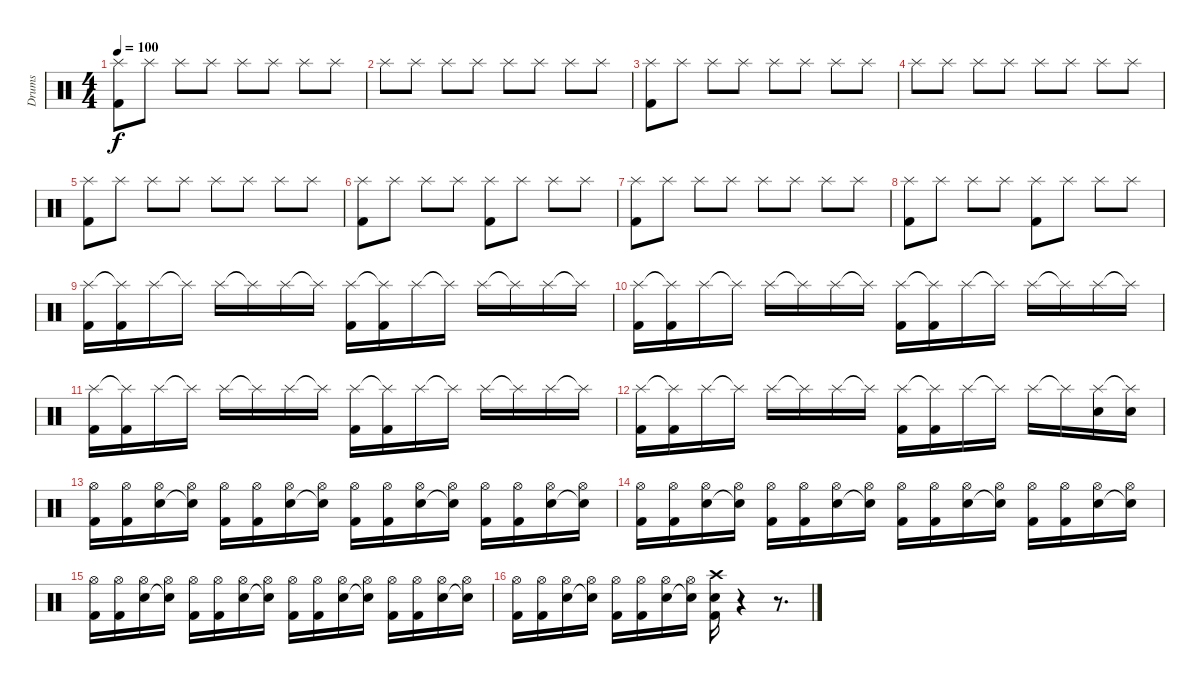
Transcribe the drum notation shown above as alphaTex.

\track ("Drums" "Drums") {instrument percussion}
\staff {score}
\articulation defaults
\ts (4 4)
\tempo 100
\clef neutral
\ks c
("Splash (hit)" "Kick (hit) 2").8{dy f} "Splash (hit)".8 "Splash (hit)".8 "Splash (hit)".8 "Splash (hit)".8 "Splash (hit)".8 "Splash (hit)".8 "Splash (hit)".8 |
"Splash (hit)".8 "Splash (hit)".8 "Splash (hit)".8 "Splash (hit)".8 "Splash (hit)".8 "Splash (hit)".8 "Splash (hit)".8 "Splash (hit)".8 |
("Splash (hit)" "Kick (hit) 2").8 "Splash (hit)".8 "Splash (hit)".8 "Splash (hit)".8 "Splash (hit)".8 "Splash (hit)".8 "Splash (hit)".8 "Splash (hit)".8 |
"Splash (hit)".8 "Splash (hit)".8 "Splash (hit)".8 "Splash (hit)".8 "Splash (hit)".8 "Splash (hit)".8 "Splash (hit)".8 "Splash (hit)".8 |
("Splash (hit)" "Kick (hit) 2").8 "Splash (hit)".8 "Splash (hit)".8 "Splash (hit)".8 "Splash (hit)".8 "Splash (hit)".8 "Splash (hit)".8 "Splash (hit)".8 |
("Splash (hit)" "Kick (hit) 2").8 "Splash (hit)".8 "Splash (hit)".8 "Splash (hit)".8 ("Splash (hit)" "Kick (hit) 2").8 "Splash (hit)".8 "Splash (hit)".8 "Splash (hit)".8 |
("Splash (hit)" "Kick (hit) 2").8 "Splash (hit)".8 "Splash (hit)".8 "Splash (hit)".8 "Splash (hit)".8 "Splash (hit)".8 "Splash (hit)".8 "Splash (hit)".8 |
("Splash (hit)" "Kick (hit) 2").8 "Splash (hit)".8 "Splash (hit)".8 "Splash (hit)".8 ("Splash (hit)" "Kick (hit) 2").8 "Splash (hit)".8 "Splash (hit)".8 "Splash (hit)".8 |
("Splash (hit)" "Kick (hit) 2").16 ("Splash (hit)"{t} "Kick (hit) 2").16 "Splash (hit)".16 "Splash (hit)"{t}.16 "Splash (hit)".16 "Splash (hit)"{t}.16 "Splash (hit)".16 "Splash (hit)"{t}.16 ("Splash (hit)" "Kick (hit) 2").16 ("Splash (hit)"{t} "Kick (hit) 2").16 "Splash (hit)".16 "Splash (hit)"{t}.16 "Splash (hit)".16 "Splash (hit)"{t}.16 "Splash (hit)".16 "Splash (hit)"{t}.16 |
("Splash (hit)" "Kick (hit) 2").16 ("Splash (hit)"{t} "Kick (hit) 2").16 "Splash (hit)".16 "Splash (hit)"{t}.16 "Splash (hit)".16 "Splash (hit)"{t}.16 "Splash (hit)".16 "Splash (hit)"{t}.16 ("Splash (hit)" "Kick (hit) 2").16 ("Splash (hit)"{t} "Kick (hit) 2").16 "Splash (hit)".16 "Splash (hit)"{t}.16 "Splash (hit)".16 "Splash (hit)"{t}.16 "Splash (hit)".16 "Splash (hit)"{t}.16 |
("Splash (hit)" "Kick (hit) 2").16 ("Splash (hit)"{t} "Kick (hit) 2").16 "Splash (hit)".16 "Splash (hit)"{t}.16 "Splash (hit)".16 "Splash (hit)"{t}.16 "Splash (hit)".16 "Splash (hit)"{t}.16 ("Splash (hit)" "Kick (hit) 2").16 ("Splash (hit)"{t} "Kick (hit) 2").16 "Splash (hit)".16 "Splash (hit)"{t}.16 "Splash (hit)".16 "Splash (hit)"{t}.16 "Splash (hit)".16 "Splash (hit)"{t}.16 |
("Splash (hit)" "Kick (hit) 2").16 ("Splash (hit)"{t} "Kick (hit) 2").16 "Splash (hit)".16 "Splash (hit)"{t}.16 "Splash (hit)".16 "Splash (hit)"{t}.16 "Splash (hit)".16 "Splash (hit)"{t}.16 ("Splash (hit)" "Kick (hit) 2").16 ("Splash (hit)"{t} "Kick (hit) 2").16 "Splash (hit)".16 "Splash (hit)"{t}.16 "Splash (hit)".16 "Splash (hit)"{t}.16 ("Splash (hit)" "Electric Snare (hit)").16 ("Splash (hit)"{t} "Electric Snare (hit)").16 |
("Hi-Hat (open)" "Kick (hit) 2").16 ("Hi-Hat (open)" "Kick (hit) 2").16 ("Hi-Hat (open)" "Electric Snare (hit)").16 ("Hi-Hat (open)" "Snare (hit)"{t}).16 ("Hi-Hat (open)" "Kick (hit) 2").16 ("Hi-Hat (open)" "Kick (hit) 2").16 ("Hi-Hat (open)" "Electric Snare (hit)").16 ("Hi-Hat (open)" "Snare (hit)"{t}).16 ("Hi-Hat (open)" "Kick (hit) 2").16 ("Hi-Hat (open)" "Kick (hit) 2").16 ("Hi-Hat (open)" "Electric Snare (hit)").16 ("Hi-Hat (open)" "Snare (hit)"{t}).16 ("Hi-Hat (open)" "Kick (hit) 2").16 ("Hi-Hat (open)" "Kick (hit) 2").16 ("Hi-Hat (open)" "Electric Snare (hit)").16 ("Hi-Hat (open)" "Electric Snare (hit)"{t}).16 |
("Hi-Hat (open)" "Kick (hit) 2").16 ("Hi-Hat (open)" "Kick (hit) 2").16 ("Hi-Hat (open)" "Electric Snare (hit)").16 ("Hi-Hat (open)" "Snare (hit)"{t}).16 ("Hi-Hat (open)" "Kick (hit) 2").16 ("Hi-Hat (open)" "Kick (hit) 2").16 ("Hi-Hat (open)" "Electric Snare (hit)").16 ("Hi-Hat (open)" "Snare (hit)"{t}).16 ("Hi-Hat (open)" "Kick (hit) 2").16 ("Hi-Hat (open)" "Kick (hit) 2").16 ("Hi-Hat (open)" "Electric Snare (hit)").16 ("Hi-Hat (open)" "Snare (hit)"{t}).16 ("Hi-Hat (open)" "Kick (hit) 2").16 ("Hi-Hat (open)" "Kick (hit) 2").16 ("Hi-Hat (open)" "Electric Snare (hit)").16 ("Hi-Hat (open)" "Electric Snare (hit)"{t}).16 |
("Hi-Hat (open)" "Kick (hit) 2").16 ("Hi-Hat (open)" "Kick (hit) 2").16 ("Hi-Hat (open)" "Electric Snare (hit)").16 ("Hi-Hat (open)" "Snare (hit)"{t}).16 ("Hi-Hat (open)" "Kick (hit) 2").16 ("Hi-Hat (open)" "Kick (hit) 2").16 ("Hi-Hat (open)" "Electric Snare (hit)").16 ("Hi-Hat (open)" "Snare (hit)"{t}).16 ("Hi-Hat (open)" "Kick (hit) 2").16 ("Hi-Hat (open)" "Kick (hit) 2").16 ("Hi-Hat (open)" "Electric Snare (hit)").16 ("Hi-Hat (open)" "Snare (hit)"{t}).16 ("Hi-Hat (open)" "Kick (hit) 2").16 ("Hi-Hat (open)" "Kick (hit) 2").16 ("Hi-Hat (open)" "Electric Snare (hit)").16 ("Hi-Hat (open)" "Electric Snare (hit)"{t}).16 |
("Hi-Hat (open)" "Kick (hit) 2").16 ("Hi-Hat (open)" "Kick (hit) 2").16 ("Hi-Hat (open)" "Electric Snare (hit)").16 ("Hi-Hat (open)" "Snare (hit)"{t}).16 ("Hi-Hat (open)" "Kick (hit) 2").16 ("Hi-Hat (open)" "Kick (hit) 2").16 ("Hi-Hat (open)" "Electric Snare (hit)").16 ("Hi-Hat (open)" "Snare (hit)"{t}).16 ("Crash high (hit)" "Electric Snare (hit)" "Kick (hit) 2").16 r.4 r.8{d}
